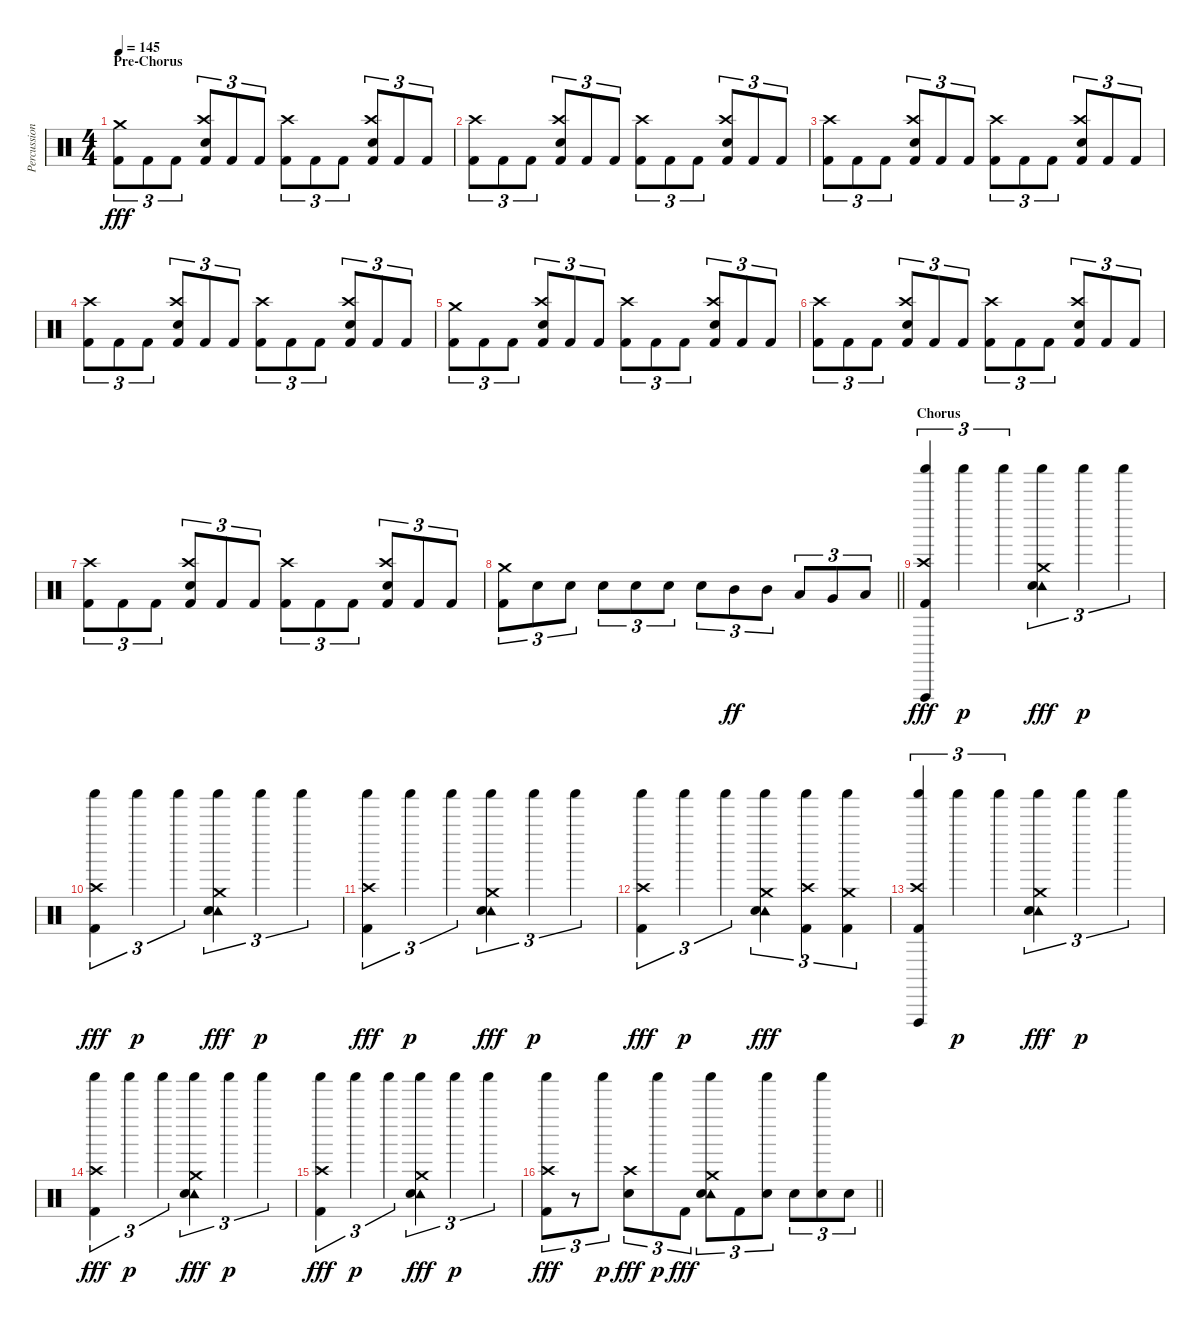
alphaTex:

\track ("Percussion" "Percussion") {instrument percussion}
\staff {score}
\articulation defaults
\ts (4 4)
\section ("" "Pre-Chorus")
\tempo 145
\clef neutral
\ks c
("Crash medium (hit)" "Kick (hit) 2").8{tu (3 2) dy fff} "Kick (hit) 2".8{tu (3 2)} "Kick (hit) 2".8{tu (3 2)} ("Crash high (hit)" "Electric Snare (hit)" "Kick (hit) 2").8{tu (3 2)} "Kick (hit) 2".8{tu (3 2)} "Kick (hit) 2".8{tu (3 2)} ("Crash high (hit)" "Kick (hit) 2").8{tu (3 2)} "Kick (hit) 2".8{tu (3 2)} "Kick (hit) 2".8{tu (3 2)} ("Crash high (hit)" "Electric Snare (hit)" "Kick (hit) 2").8{tu (3 2)} "Kick (hit) 2".8{tu (3 2)} "Kick (hit) 2".8{tu (3 2)} |
("Crash high (hit)" "Kick (hit) 2").8{tu (3 2)} "Kick (hit) 2".8{tu (3 2)} "Kick (hit) 2".8{tu (3 2)} ("Crash high (hit)" "Electric Snare (hit)" "Kick (hit) 2").8{tu (3 2)} "Kick (hit) 2".8{tu (3 2)} "Kick (hit) 2".8{tu (3 2)} ("Crash high (hit)" "Kick (hit) 2").8{tu (3 2)} "Kick (hit) 2".8{tu (3 2)} "Kick (hit) 2".8{tu (3 2)} ("Crash high (hit)" "Electric Snare (hit)" "Kick (hit) 2").8{tu (3 2)} "Kick (hit) 2".8{tu (3 2)} "Kick (hit) 2".8{tu (3 2)} |
("Crash high (hit)" "Kick (hit) 2").8{tu (3 2)} "Kick (hit) 2".8{tu (3 2)} "Kick (hit) 2".8{tu (3 2)} ("Crash high (hit)" "Electric Snare (hit)" "Kick (hit) 2").8{tu (3 2)} "Kick (hit) 2".8{tu (3 2)} "Kick (hit) 2".8{tu (3 2)} ("Crash high (hit)" "Kick (hit) 2").8{tu (3 2)} "Kick (hit) 2".8{tu (3 2)} "Kick (hit) 2".8{tu (3 2)} ("Crash high (hit)" "Electric Snare (hit)" "Kick (hit) 2").8{tu (3 2)} "Kick (hit) 2".8{tu (3 2)} "Kick (hit) 2".8{tu (3 2)} |
("Crash high (hit)" "Kick (hit) 2").8{tu (3 2)} "Kick (hit) 2".8{tu (3 2)} "Kick (hit) 2".8{tu (3 2)} ("Crash high (hit)" "Electric Snare (hit)" "Kick (hit) 2").8{tu (3 2)} "Kick (hit) 2".8{tu (3 2)} "Kick (hit) 2".8{tu (3 2)} ("Crash high (hit)" "Kick (hit) 2").8{tu (3 2)} "Kick (hit) 2".8{tu (3 2)} "Kick (hit) 2".8{tu (3 2)} ("Crash high (hit)" "Electric Snare (hit)" "Kick (hit) 2").8{tu (3 2)} "Kick (hit) 2".8{tu (3 2)} "Kick (hit) 2".8{tu (3 2)} |
("Crash medium (hit)" "Kick (hit) 2").8{tu (3 2)} "Kick (hit) 2".8{tu (3 2)} "Kick (hit) 2".8{tu (3 2)} ("Crash high (hit)" "Electric Snare (hit)" "Kick (hit) 2").8{tu (3 2)} "Kick (hit) 2".8{tu (3 2)} "Kick (hit) 2".8{tu (3 2)} ("Crash high (hit)" "Kick (hit) 2").8{tu (3 2)} "Kick (hit) 2".8{tu (3 2)} "Kick (hit) 2".8{tu (3 2)} ("Crash high (hit)" "Electric Snare (hit)" "Kick (hit) 2").8{tu (3 2)} "Kick (hit) 2".8{tu (3 2)} "Kick (hit) 2".8{tu (3 2)} |
("Crash high (hit)" "Kick (hit) 2").8{tu (3 2)} "Kick (hit) 2".8{tu (3 2)} "Kick (hit) 2".8{tu (3 2)} ("Crash high (hit)" "Electric Snare (hit)" "Kick (hit) 2").8{tu (3 2)} "Kick (hit) 2".8{tu (3 2)} "Kick (hit) 2".8{tu (3 2)} ("Crash high (hit)" "Kick (hit) 2").8{tu (3 2)} "Kick (hit) 2".8{tu (3 2)} "Kick (hit) 2".8{tu (3 2)} ("Crash high (hit)" "Electric Snare (hit)" "Kick (hit) 2").8{tu (3 2)} "Kick (hit) 2".8{tu (3 2)} "Kick (hit) 2".8{tu (3 2)} |
("Crash high (hit)" "Kick (hit) 2").8{tu (3 2)} "Kick (hit) 2".8{tu (3 2)} "Kick (hit) 2".8{tu (3 2)} ("Crash high (hit)" "Electric Snare (hit)" "Kick (hit) 2").8{tu (3 2)} "Kick (hit) 2".8{tu (3 2)} "Kick (hit) 2".8{tu (3 2)} ("Crash high (hit)" "Kick (hit) 2").8{tu (3 2)} "Kick (hit) 2".8{tu (3 2)} "Kick (hit) 2".8{tu (3 2)} ("Crash high (hit)" "Electric Snare (hit)" "Kick (hit) 2").8{tu (3 2)} "Kick (hit) 2".8{tu (3 2)} "Kick (hit) 2".8{tu (3 2)} |
\barLineRight lightlight
("Crash medium (hit)" "Kick (hit) 2").8{tu (3 2)} "Electric Snare (hit)".8{tu (3 2)} "Electric Snare (hit)".8{tu (3 2)} "Electric Snare (hit)".8{tu (3 2)} "Electric Snare (hit)".8{tu (3 2)} "Electric Snare (hit)".8{tu (3 2)} "Electric Snare (hit)".8{tu (3 2)} "Mid Tom (hit)".8{tu (3 2) dy ff} "Mid Tom (hit)".8{tu (3 2)} "Low Tom (hit)".8{tu (3 2)} "Very Low Tom (hit)".8{tu (3 2)} "Low Floor Tom (hit)".8{tu (3 2)} |
\section ("" "Chorus")
("Shaker (hit)" "Crash high (hit)" "Vibraslap (hit)" "Kick (hit) 2").4{tu (3 2) dy fff} "Shaker (hit)".4{tu (3 2) dy p} "Shaker (hit)".4{tu (3 2)} ("Shaker (hit)" "Crash medium (hit)" "Tambourine (hit)" "Electric Snare (hit)").4{tu (3 2) dy fff} "Shaker (hit)".4{tu (3 2) dy p} "Shaker (hit)".4{tu (3 2)} |
("Shaker (hit)" "Crash high (hit)" "Kick (hit) 2").4{tu (3 2) dy fff} "Shaker (hit)".4{tu (3 2) dy p} "Shaker (hit)".4{tu (3 2)} ("Shaker (hit)" "Crash medium (hit)" "Tambourine (hit)" "Electric Snare (hit)").4{tu (3 2) dy fff} "Shaker (hit)".4{tu (3 2) dy p} "Shaker (hit)".4{tu (3 2)} |
("Shaker (hit)" "Crash high (hit)" "Kick (hit) 2").4{tu (3 2) dy fff} "Shaker (hit)".4{tu (3 2) dy p} "Shaker (hit)".4{tu (3 2)} ("Shaker (hit)" "Crash medium (hit)" "Tambourine (hit)" "Electric Snare (hit)").4{tu (3 2) dy fff} "Shaker (hit)".4{tu (3 2) dy p} "Shaker (hit)".4{tu (3 2)} |
("Shaker (hit)" "Crash high (hit)" "Kick (hit) 2").4{tu (3 2) dy fff} "Shaker (hit)".4{tu (3 2) dy p} "Shaker (hit)".4{tu (3 2)} ("Shaker (hit)" "Crash medium (hit)" "Tambourine (hit)" "Electric Snare (hit)").4{tu (3 2) dy fff} ("Shaker (hit)" "Crash high (hit)" "Kick (hit) 2").4{tu (3 2)} ("Shaker (hit)" "Crash medium (hit)" "Kick (hit) 2").4{tu (3 2)} |
("Shaker (hit)" "Crash high (hit)" "Vibraslap (hit)" "Kick (hit) 2").4{tu (3 2)} "Shaker (hit)".4{tu (3 2) dy p} "Shaker (hit)".4{tu (3 2)} ("Shaker (hit)" "Crash medium (hit)" "Tambourine (hit)" "Electric Snare (hit)").4{tu (3 2) dy fff} "Shaker (hit)".4{tu (3 2) dy p} "Shaker (hit)".4{tu (3 2)} |
("Shaker (hit)" "Crash high (hit)" "Kick (hit) 2").4{tu (3 2) dy fff} "Shaker (hit)".4{tu (3 2) dy p} "Shaker (hit)".4{tu (3 2)} ("Shaker (hit)" "Crash medium (hit)" "Tambourine (hit)" "Electric Snare (hit)").4{tu (3 2) dy fff} "Shaker (hit)".4{tu (3 2) dy p} "Shaker (hit)".4{tu (3 2)} |
("Shaker (hit)" "Crash high (hit)" "Kick (hit) 2").4{tu (3 2) dy fff} "Shaker (hit)".4{tu (3 2) dy p} "Shaker (hit)".4{tu (3 2)} ("Shaker (hit)" "Crash medium (hit)" "Tambourine (hit)" "Electric Snare (hit)").4{tu (3 2) dy fff} "Shaker (hit)".4{tu (3 2) dy p} "Shaker (hit)".4{tu (3 2)} |
\barLineRight lightlight
("Shaker (hit)" "Crash high (hit)" "Kick (hit) 2").8{tu (3 2) dy fff} r.8{tu (3 2)} "Shaker (hit)".8{tu (3 2) dy p} ("Crash high (hit)" "Electric Snare (hit)").8{tu (3 2) dy fff} "Shaker (hit)".8{tu (3 2) dy p} "Kick (hit) 2".8{tu (3 2) dy fff} ("Shaker (hit)" "Crash medium (hit)" "Tambourine (hit)" "Electric Snare (hit)").8{tu (3 2)} "Kick (hit) 2".8{tu (3 2)} ("Shaker (hit)" "Electric Snare (hit)").8{tu (3 2)} "Electric Snare (hit)".8{tu (3 2)} ("Shaker (hit)" "Electric Snare (hit)").8{tu (3 2)} "Electric Snare (hit)".8{tu (3 2)}
